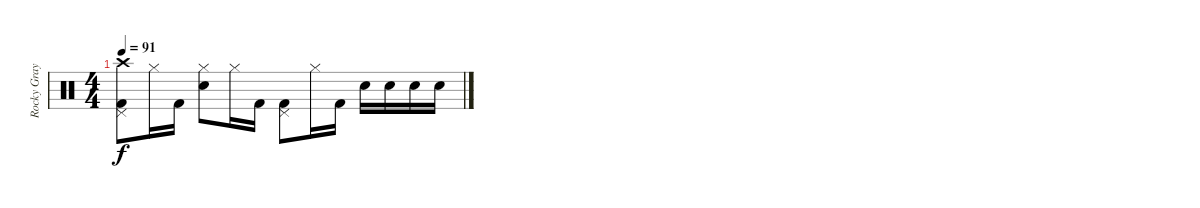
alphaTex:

\track ("Rocky Gray (Drums)" "Rocky Gray") {instrument percussion}
\staff {score}
\articulation defaults
\ts (4 4)
\tempo 91
\clef neutral
\ks c
("Crash high (hit)" "Pedal Hi-Hat (hit)" "Kick (hit) 2").8{dy f} "Hi-Hat (closed)".16 "Kick (hit) 2".16 ("Hi-Hat (closed)" "Electric Snare (hit)").8 "Hi-Hat (closed)".16 "Kick (hit) 2".16 ("Pedal Hi-Hat (hit)" "Kick (hit) 2").8 "Hi-Hat (closed)".16 "Kick (hit) 2".16 "Electric Snare (hit)".16 "Electric Snare (hit)".16 "Electric Snare (hit)".16 "Electric Snare (hit)".16
